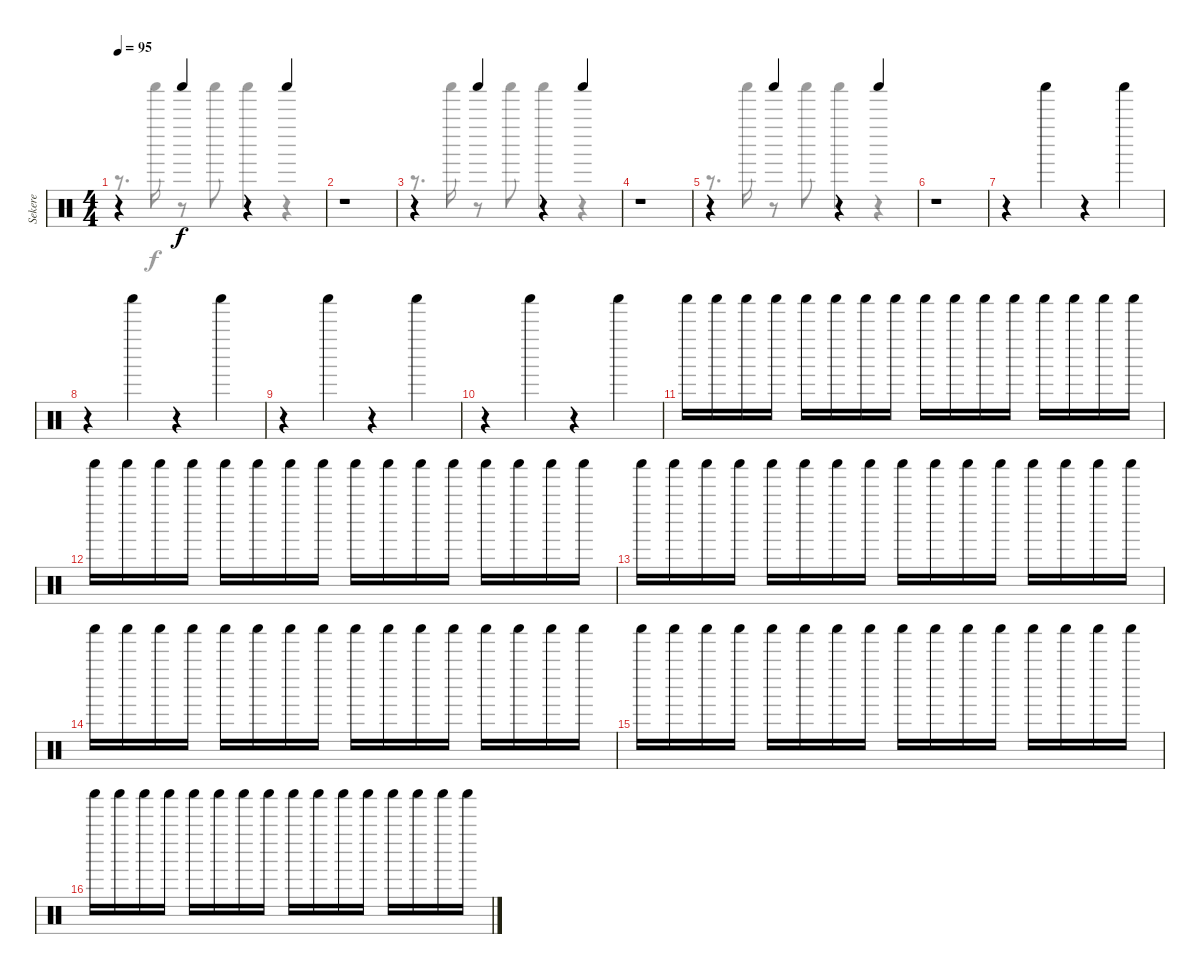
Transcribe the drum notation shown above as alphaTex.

\track ("Sekere" "Sekere") {instrument percussion}
\staff {score}
\articulation defaults
\voice
\ts (4 4)
\tempo 95
\clef neutral
\ks c
r.4{dy f} "Shaker (hit)".4 r.4 "Shaker (hit)".4 |
r.1 |
r.4 "Shaker (hit)".4 r.4 "Shaker (hit)".4 |
r.1 |
r.4 "Shaker (hit)".4 r.4 "Shaker (hit)".4 |
r.1 |
r.4 "Shaker (hit)".4 r.4 "Shaker (hit)".4 |
r.4 "Shaker (hit)".4 r.4 "Shaker (hit)".4 |
r.4 "Shaker (hit)".4 r.4 "Shaker (hit)".4 |
r.4 "Shaker (hit)".4 r.4 "Shaker (hit)".4 |
"Shaker (hit)".16 "Shaker (hit)".16 "Shaker (hit)".16 "Shaker (hit)".16 "Shaker (hit)".16 "Shaker (hit)".16 "Shaker (hit)".16 "Shaker (hit)".16 "Shaker (hit)".16 "Shaker (hit)".16 "Shaker (hit)".16 "Shaker (hit)".16 "Shaker (hit)".16 "Shaker (hit)".16 "Shaker (hit)".16 "Shaker (hit)".16 |
"Shaker (hit)".16 "Shaker (hit)".16 "Shaker (hit)".16 "Shaker (hit)".16 "Shaker (hit)".16 "Shaker (hit)".16 "Shaker (hit)".16 "Shaker (hit)".16 "Shaker (hit)".16 "Shaker (hit)".16 "Shaker (hit)".16 "Shaker (hit)".16 "Shaker (hit)".16 "Shaker (hit)".16 "Shaker (hit)".16 "Shaker (hit)".16 |
"Shaker (hit)".16 "Shaker (hit)".16 "Shaker (hit)".16 "Shaker (hit)".16 "Shaker (hit)".16 "Shaker (hit)".16 "Shaker (hit)".16 "Shaker (hit)".16 "Shaker (hit)".16 "Shaker (hit)".16 "Shaker (hit)".16 "Shaker (hit)".16 "Shaker (hit)".16 "Shaker (hit)".16 "Shaker (hit)".16 "Shaker (hit)".16 |
"Shaker (hit)".16 "Shaker (hit)".16 "Shaker (hit)".16 "Shaker (hit)".16 "Shaker (hit)".16 "Shaker (hit)".16 "Shaker (hit)".16 "Shaker (hit)".16 "Shaker (hit)".16 "Shaker (hit)".16 "Shaker (hit)".16 "Shaker (hit)".16 "Shaker (hit)".16 "Shaker (hit)".16 "Shaker (hit)".16 "Shaker (hit)".16 |
"Shaker (hit)".16 "Shaker (hit)".16 "Shaker (hit)".16 "Shaker (hit)".16 "Shaker (hit)".16 "Shaker (hit)".16 "Shaker (hit)".16 "Shaker (hit)".16 "Shaker (hit)".16 "Shaker (hit)".16 "Shaker (hit)".16 "Shaker (hit)".16 "Shaker (hit)".16 "Shaker (hit)".16 "Shaker (hit)".16 "Shaker (hit)".16 |
"Shaker (hit)".16 "Shaker (hit)".16 "Shaker (hit)".16 "Shaker (hit)".16 "Shaker (hit)".16 "Shaker (hit)".16 "Shaker (hit)".16 "Shaker (hit)".16 "Shaker (hit)".16 "Shaker (hit)".16 "Shaker (hit)".16 "Shaker (hit)".16 "Shaker (hit)".16 "Shaker (hit)".16 "Shaker (hit)".16 "Shaker (hit)".16
\voice
\clef neutral
\ottava regular
\simile none
\ks c
r.8{d dy f} "Shaker (hit)".16 r.8 "Shaker (hit)".8 "Shaker (hit)".4 r.4 |
|
r.8{d} "Shaker (hit)".16 r.8 "Shaker (hit)".8 "Shaker (hit)".4 r.4 |
|
r.8{d} "Shaker (hit)".16 r.8 "Shaker (hit)".8 "Shaker (hit)".4 r.4 |
|
|
|
|
|
|
|
|
|
|
